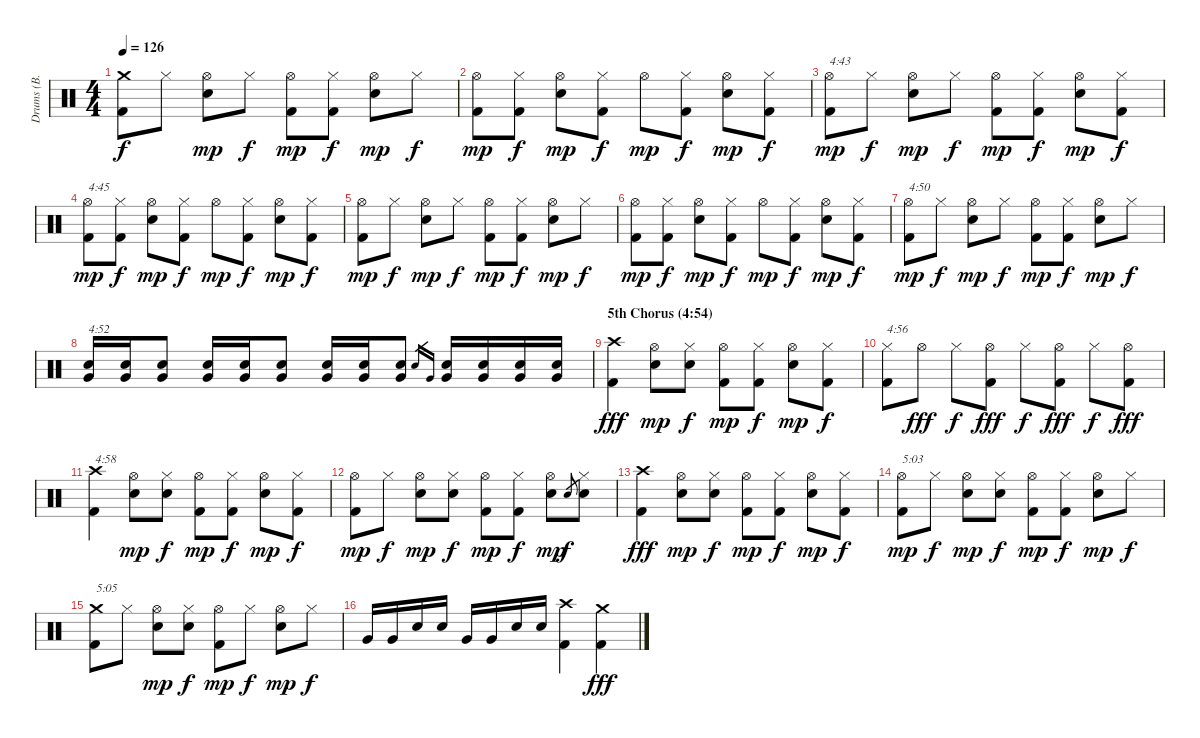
\track ("Drums (B. Downey)" "Drums (B. ") {instrument percussion}
\staff {score}
\articulation defaults
\ts (4 4)
\tempo 126
\clef neutral
\ks c
("Crash medium (hit)" "Kick (hit) 2").8{dy f} "Hi-Hat (closed)".8 ("Hi-Hat (open)" "Electric Snare (hit)").8{dy mp} "Hi-Hat (closed)".8{dy f} ("Hi-Hat (open)" "Kick (hit) 2").8{dy mp} ("Hi-Hat (closed)" "Kick (hit) 2").8{dy f} ("Hi-Hat (open)" "Electric Snare (hit)").8{dy mp} "Hi-Hat (closed)".8{dy f} |
("Hi-Hat (open)" "Kick (hit) 2").8{dy mp} ("Hi-Hat (closed)" "Kick (hit) 2").8{dy f} ("Hi-Hat (open)" "Electric Snare (hit)").8{dy mp} ("Hi-Hat (closed)" "Kick (hit) 2").8{dy f} "Hi-Hat (open)".8{dy mp} ("Hi-Hat (closed)" "Kick (hit) 2").8{dy f} ("Hi-Hat (open)" "Electric Snare (hit)").8{dy mp} ("Hi-Hat (closed)" "Kick (hit) 2").8{dy f} |
("Hi-Hat (open)" "Kick (hit) 2").8{txt "4:43" dy mp} "Hi-Hat (closed)".8{dy f} ("Hi-Hat (open)" "Electric Snare (hit)").8{dy mp} "Hi-Hat (closed)".8{dy f} ("Hi-Hat (open)" "Kick (hit) 2").8{dy mp} ("Hi-Hat (closed)" "Kick (hit) 2").8{dy f} ("Hi-Hat (open)" "Electric Snare (hit)").8{dy mp} ("Hi-Hat (closed)" "Kick (hit) 2").8{dy f} |
("Hi-Hat (open)" "Kick (hit) 2").8{txt "4:45" dy mp} ("Hi-Hat (closed)" "Kick (hit) 2").8{dy f} ("Hi-Hat (open)" "Electric Snare (hit)").8{dy mp} ("Hi-Hat (closed)" "Kick (hit) 2").8{dy f} "Hi-Hat (open)".8{dy mp} ("Hi-Hat (closed)" "Kick (hit) 2").8{dy f} ("Hi-Hat (open)" "Electric Snare (hit)").8{dy mp} ("Hi-Hat (closed)" "Kick (hit) 2").8{dy f} |
("Hi-Hat (open)" "Kick (hit) 2").8{dy mp} "Hi-Hat (closed)".8{dy f} ("Hi-Hat (open)" "Electric Snare (hit)").8{dy mp} "Hi-Hat (closed)".8{dy f} ("Hi-Hat (open)" "Kick (hit) 2").8{dy mp} ("Hi-Hat (closed)" "Kick (hit) 2").8{dy f} ("Hi-Hat (open)" "Electric Snare (hit)").8{dy mp} "Hi-Hat (closed)".8{dy f} |
("Hi-Hat (open)" "Kick (hit) 2").8{dy mp} ("Hi-Hat (closed)" "Kick (hit) 2").8{dy f} ("Hi-Hat (open)" "Electric Snare (hit)").8{dy mp} ("Hi-Hat (closed)" "Kick (hit) 2").8{dy f} "Hi-Hat (open)".8{dy mp} ("Hi-Hat (closed)" "Kick (hit) 2").8{dy f} ("Hi-Hat (open)" "Electric Snare (hit)").8{dy mp} ("Hi-Hat (closed)" "Kick (hit) 2").8{dy f} |
("Hi-Hat (open)" "Kick (hit) 2").8{txt "4:50" dy mp} "Hi-Hat (closed)".8{dy f} ("Hi-Hat (open)" "Electric Snare (hit)").8{dy mp} "Hi-Hat (closed)".8{dy f} ("Hi-Hat (open)" "Kick (hit) 2").8{dy mp} ("Hi-Hat (closed)" "Kick (hit) 2").8{dy f} ("Hi-Hat (open)" "Electric Snare (hit)").8{dy mp} "Hi-Hat (closed)".8{dy f} |
("Electric Snare (hit)" "Very Low Tom (hit)").16{txt "4:52"} ("Electric Snare (hit)" "Very Low Tom (hit)").16 ("Electric Snare (hit)" "Very Low Tom (hit)").8 ("Electric Snare (hit)" "Very Low Tom (hit)").16 ("Electric Snare (hit)" "Very Low Tom (hit)").16 ("Electric Snare (hit)" "Very Low Tom (hit)").8 ("Electric Snare (hit)" "Very Low Tom (hit)").16 ("Electric Snare (hit)" "Very Low Tom (hit)").16 ("Electric Snare (hit)" "Very Low Tom (hit)").8 "Electric Snare (hit)".16{gr} "Very Low Tom (hit)".16{gr} ("Electric Snare (hit)" "Very Low Tom (hit)").16 ("Electric Snare (hit)" "Very Low Tom (hit)").16 ("Electric Snare (hit)" "Very Low Tom (hit)").16 ("Electric Snare (hit)" "Very Low Tom (hit)").16 |
\section ("" "5th Chorus (4:54)")
("Crash high (hit)" "Kick (hit) 2").4{dy fff} ("Hi-Hat (open)" "Electric Snare (hit)").8{dy mp} ("Hi-Hat (closed)" "Electric Snare (hit)").8{dy f} ("Hi-Hat (open)" "Kick (hit) 2").8{dy mp} ("Hi-Hat (closed)" "Kick (hit) 2").8{dy f} ("Hi-Hat (open)" "Electric Snare (hit)").8{dy mp} ("Hi-Hat (closed)" "Kick (hit) 2").8{dy f} |
("Hi-Hat (closed)" "Kick (hit) 2").8{txt "4:56"} "Hi-Hat (open)".8{dy fff} "Hi-Hat (closed)".8{dy f} ("Hi-Hat (open)" "Kick (hit) 2").8{dy fff} "Hi-Hat (closed)".8{dy f} ("Hi-Hat (open)" "Kick (hit) 2").8{dy fff} "Hi-Hat (closed)".8{dy f} ("Hi-Hat (open)" "Kick (hit) 2").8{dy fff} |
("Crash high (hit)" "Kick (hit) 2").4{txt "4:58"} ("Hi-Hat (open)" "Electric Snare (hit)").8{dy mp} ("Hi-Hat (closed)" "Electric Snare (hit)").8{dy f} ("Hi-Hat (open)" "Kick (hit) 2").8{dy mp} ("Hi-Hat (closed)" "Kick (hit) 2").8{dy f} ("Hi-Hat (open)" "Electric Snare (hit)").8{dy mp} ("Hi-Hat (closed)" "Kick (hit) 2").8{dy f} |
("Hi-Hat (open)" "Kick (hit) 2").8{dy mp} "Hi-Hat (closed)".8{dy f} ("Hi-Hat (open)" "Electric Snare (hit)").8{dy mp} ("Hi-Hat (closed)" "Electric Snare (hit)").8{dy f} ("Hi-Hat (open)" "Kick (hit) 2").8{dy mp} ("Hi-Hat (closed)" "Kick (hit) 2").8{dy f} ("Hi-Hat (open)" "Electric Snare (hit)").8{dy mp} "Electric Snare (hit)".8{gr dy f} ("Hi-Hat (closed)" "Electric Snare (hit)").8 |
("Crash high (hit)" "Kick (hit) 2").4{dy fff} ("Hi-Hat (open)" "Electric Snare (hit)").8{dy mp} ("Hi-Hat (closed)" "Electric Snare (hit)").8{dy f} ("Hi-Hat (open)" "Kick (hit) 2").8{dy mp} ("Hi-Hat (closed)" "Kick (hit) 2").8{dy f} ("Hi-Hat (open)" "Electric Snare (hit)").8{dy mp} ("Hi-Hat (closed)" "Kick (hit) 2").8{dy f} |
("Hi-Hat (open)" "Kick (hit) 2").8{txt "5:03" dy mp} "Hi-Hat (closed)".8{dy f} ("Hi-Hat (open)" "Electric Snare (hit)").8{dy mp} ("Hi-Hat (closed)" "Electric Snare (hit)").8{dy f} ("Hi-Hat (open)" "Kick (hit) 2").8{dy mp} ("Hi-Hat (closed)" "Kick (hit) 2").8{dy f} ("Hi-Hat (open)" "Electric Snare (hit)").8{dy mp} "Hi-Hat (closed)".8{dy f} |
("Crash medium (hit)" "Kick (hit) 2").8{txt "5:05"} "Hi-Hat (closed)".8 ("Hi-Hat (open)" "Electric Snare (hit)").8{dy mp} ("Hi-Hat (closed)" "Electric Snare (hit)").8{dy f} ("Hi-Hat (open)" "Kick (hit) 2").8{dy mp} "Hi-Hat (closed)".8{dy f} ("Hi-Hat (open)" "Electric Snare (hit)").8{dy mp} "Hi-Hat (closed)".8{dy f} |
"Very Low Tom (hit)".16 "Very Low Tom (hit)".16 "Electric Snare (hit)".16 "Electric Snare (hit)".16 "Very Low Tom (hit)".16 "Very Low Tom (hit)".16 "Electric Snare (hit)".16 "Electric Snare (hit)".16 ("Crash high (hit)" "Kick (hit) 2").4{balance 13} ("Crash medium (hit)" "Kick (hit) 2").4{dy fff balance 3}
